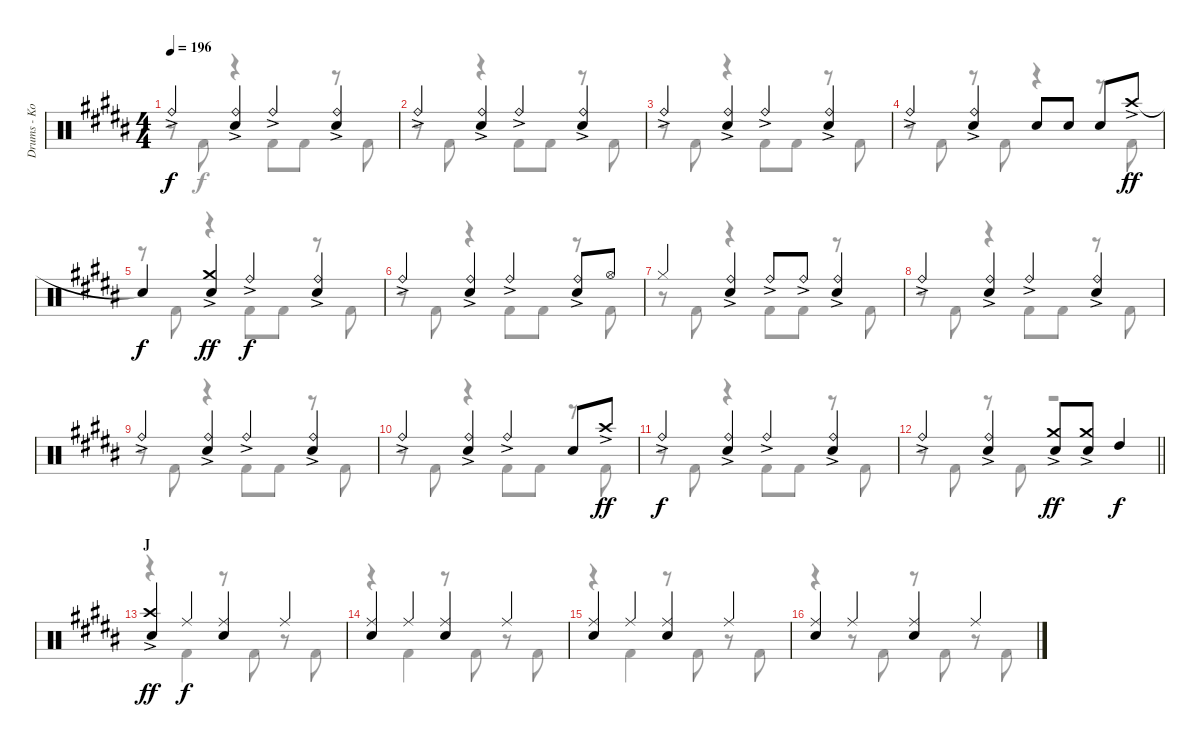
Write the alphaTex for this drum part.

\track ("Drums - Koji Hasegawa" "Drums - Ko") {instrument percussion}
\staff {score}
\articulation defaults
\voice
\ts (4 4)
\tempo 196
\clef neutral
\ks b "Ride (bell)"{ac}.4{dy f}
("Ride (bell)"{ac} "Snare (hit) 2").4 "Ride (bell)"{ac}.4 ("Ride (bell)"{ac} "Snare (hit) 2").4 |
"Ride (bell)"{ac}.4 ("Ride (bell)"{ac} "Snare (hit) 2").4 "Ride (bell)"{ac}.4 ("Ride (bell)"{ac} "Snare (hit) 2").4 |
"Ride (bell)"{ac}.4 ("Ride (bell)"{ac} "Snare (hit) 2").4 "Ride (bell)"{ac}.4 ("Ride (bell)"{ac} "Snare (hit) 2").4 |
"Ride (bell)"{ac}.4 ("Ride (bell)"{ac} "Snare (hit) 2").4 "Snare (hit) 2".8 "Snare (hit) 2".8 "Snare (hit) 2".8 "Crash high (hit)"{ac}.8{dy ff} |
"Snare (hit)"{t}.4{dy f} ("Crash medium (hit)"{ac} "Snare (hit) 2").4{dy ff} "Ride (bell)"{ac}.4{dy f} ("Ride (bell)"{ac} "Snare (hit) 2").4 |
"Ride (bell)"{ac}.4 ("Ride (bell)"{ac} "Snare (hit) 2").4 "Ride (bell)"{ac}.4 ("Ride (bell)"{ac} "Snare (hit) 2").8 "Hi-Hat (open)".8 |
"Hi-Hat (closed)".4 ("Ride (bell)"{ac} "Snare (hit) 2").4 "Ride (bell)"{ac}.8 "Ride (bell)"{ac}.8 ("Ride (bell)"{ac} "Snare (hit) 2").4 |
"Ride (bell)"{ac}.4 ("Ride (bell)"{ac} "Snare (hit) 2").4 "Ride (bell)"{ac}.4 ("Ride (bell)"{ac} "Snare (hit) 2").4 |
"Ride (bell)"{ac}.4 ("Ride (bell)"{ac} "Snare (hit) 2").4 "Ride (bell)"{ac}.4 ("Ride (bell)"{ac} "Snare (hit) 2").4 |
"Ride (bell)"{ac}.4 ("Ride (bell)"{ac} "Snare (hit) 2").4 "Ride (bell)"{ac}.4 "Snare (hit) 2".8 "Crash high (hit)"{ac}.8{dy ff} |
"Ride (bell)"{ac}.4{dy f} ("Ride (bell)"{ac} "Snare (hit) 2").4 "Ride (bell)"{ac}.4 ("Ride (bell)"{ac} "Snare (hit) 2").4 |
\barLineRight lightlight "Ride (bell)"{ac}.4
("Ride (bell)"{ac} "Snare (hit) 2").4 ("Crash medium (hit)"{ac} "Snare (hit) 2").8{dy ff} ("Crash medium (hit)"{ac} "Snare (hit) 2").8 "High Tom (hit)".4{dy f} |
\section ("" "J")
("Crash high (hit)"{ac} "Snare (hit) 2").4{dy ff} "Ride (middle)".4{dy f} ("Ride (middle)" "Snare (hit) 2").4 "Ride (middle)".4 |
("Ride (middle)" "Snare (hit) 2").4 "Ride (middle)".4 ("Ride (middle)" "Snare (hit) 2").4 "Ride (middle)".4 |
("Ride (middle)" "Snare (hit) 2").4 "Ride (middle)".4 ("Ride (middle)" "Snare (hit) 2").4 "Ride (middle)".4 |
("Ride (middle)" "Snare (hit) 2").4 "Ride (middle)".4 ("Ride (middle)" "Snare (hit) 2").4 "Ride (middle)".4
\voice
\clef neutral
\ottava regular
\simile none
\ks b
r.8{dy f} "Kick (hit) 2".8 r.4 "Kick (hit) 2".8 "Kick (hit) 2".8 r.8 "Kick (hit) 2".8 |
r.8 "Kick (hit) 2".8 r.4 "Kick (hit) 2".8 "Kick (hit) 2".8 r.8 "Kick (hit) 2".8 |
r.8 "Kick (hit) 2".8 r.4 "Kick (hit) 2".8 "Kick (hit) 2".8 r.8 "Kick (hit) 2".8 |
r.8 "Kick (hit) 2".8 r.8 "Kick (hit) 2".8 r.4 r.8 "Kick (hit) 2".8 |
r.8 "Kick (hit) 2".8 r.4 "Kick (hit) 2".8 "Kick (hit) 2".8 r.8 "Kick (hit) 2".8 |
r.8 "Kick (hit) 2".8 r.4 "Kick (hit) 2".8 "Kick (hit) 2".8 r.8 "Kick (hit) 2".8 |
r.8 "Kick (hit) 2".8 r.4 "Kick (hit) 2".8 "Kick (hit) 2".8 r.8 "Kick (hit) 2".8 |
r.8 "Kick (hit) 2".8 r.4 "Kick (hit) 2".8 "Kick (hit) 2".8 r.8 "Kick (hit) 2".8 |
r.8 "Kick (hit) 2".8 r.4 "Kick (hit) 2".8 "Kick (hit) 2".8 r.8 "Kick (hit) 2".8 |
r.8 "Kick (hit) 2".8 r.4 "Kick (hit) 2".8 "Kick (hit) 2".8 r.8 "Kick (hit) 2".8 |
r.8 "Kick (hit) 2".8 r.4 "Kick (hit) 2".8 "Kick (hit) 2".8 r.8 "Kick (hit) 2".8 |
\barLineRight lightlight
r.8 "Kick (hit) 2".8 r.8 "Kick (hit) 2".8 r.2 |
r.4 "Kick (hit) 2".4 r.8 "Kick (hit) 2".8 r.8 "Kick (hit) 2".8 |
r.4 "Kick (hit) 2".4 r.8 "Kick (hit) 2".8 r.8 "Kick (hit) 2".8 |
r.4 "Kick (hit) 2".4 r.8 "Kick (hit) 2".8 r.8 "Kick (hit) 2".8 |
r.4 r.8 "Kick (hit) 2".8 r.8 "Kick (hit) 2".8 r.8 "Kick (hit) 2".8
